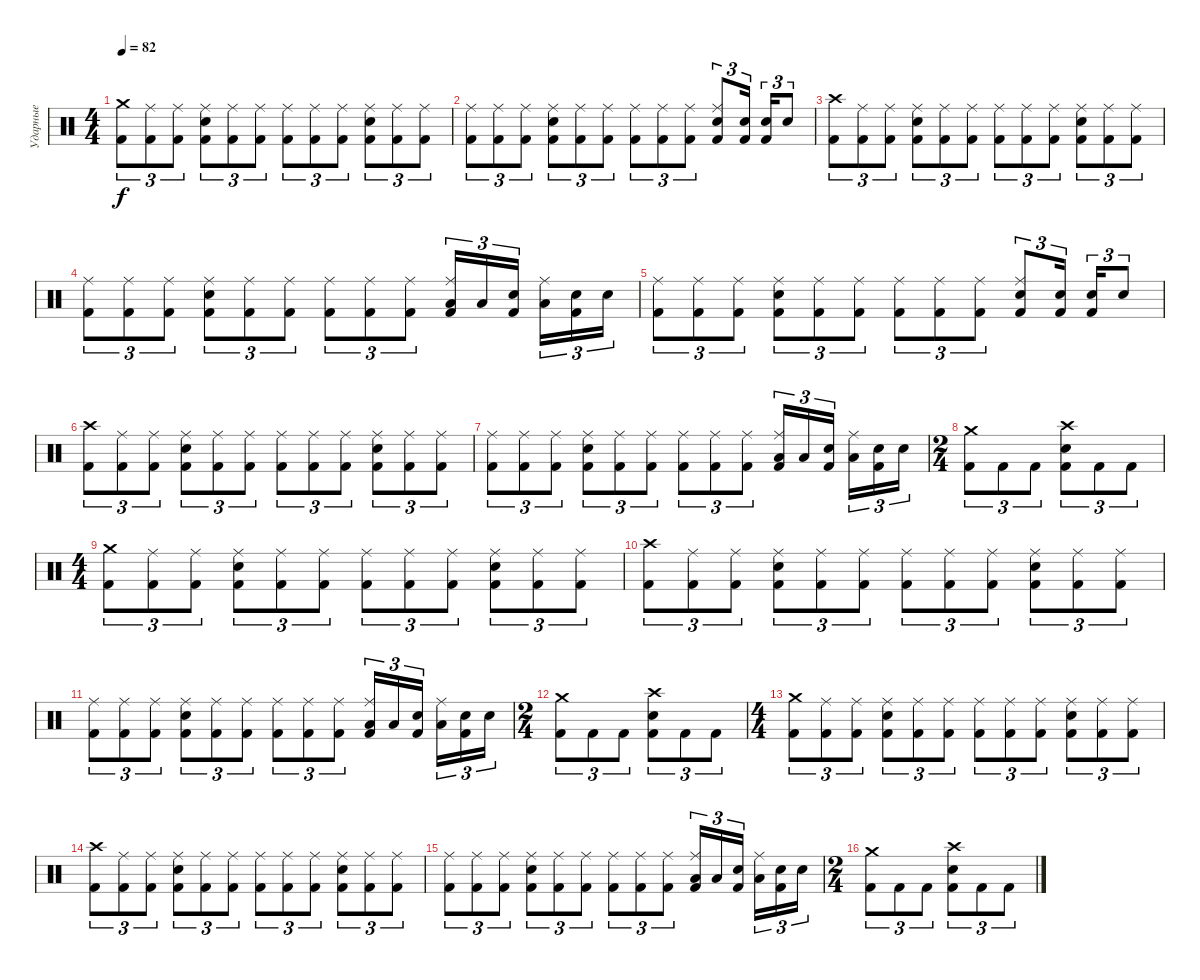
\track ("Ударные" "Ударные") {instrument percussion}
\staff {score}
\articulation defaults
\ts (4 4)
\tempo 82
\clef neutral
\ks c
("Crash medium (hit)" "Kick (hit) 2").8{tu (3 2) dy f} ("Ride (middle)" "Kick (hit) 2").8{tu (3 2)} ("Ride (middle)" "Kick (hit) 2").8{tu (3 2)} ("Ride (middle)" "Electric Snare (hit)" "Kick (hit) 2").8{tu (3 2)} ("Ride (middle)" "Kick (hit) 2").8{tu (3 2)} ("Ride (middle)" "Kick (hit) 2").8{tu (3 2)} ("Ride (middle)" "Kick (hit) 2").8{tu (3 2)} ("Ride (middle)" "Kick (hit) 2").8{tu (3 2)} ("Ride (middle)" "Kick (hit) 2").8{tu (3 2)} ("Ride (middle)" "Electric Snare (hit)" "Kick (hit) 2").8{tu (3 2)} ("Ride (middle)" "Kick (hit) 2").8{tu (3 2)} ("Ride (middle)" "Kick (hit) 2").8{tu (3 2)} |
("Ride (middle)" "Kick (hit) 2").8{tu (3 2)} ("Ride (middle)" "Kick (hit) 2").8{tu (3 2)} ("Ride (middle)" "Kick (hit) 2").8{tu (3 2)} ("Ride (middle)" "Electric Snare (hit)" "Kick (hit) 2").8{tu (3 2)} ("Ride (middle)" "Kick (hit) 2").8{tu (3 2)} ("Ride (middle)" "Kick (hit) 2").8{tu (3 2)} ("Ride (middle)" "Kick (hit) 2").8{tu (3 2)} ("Ride (middle)" "Kick (hit) 2").8{tu (3 2)} ("Ride (middle)" "Kick (hit) 2").8{tu (3 2)} ("Ride (middle)" "Electric Snare (hit)" "Kick (hit) 2").8{tu (3 2)} ("Electric Snare (hit)" "Kick (hit) 2").16{tu (3 2)} ("Electric Snare (hit)" "Kick (hit) 2").16{tu (3 2)} "Electric Snare (hit)".8{tu (3 2)} |
("Crash high (hit)" "Kick (hit) 2").8{tu (3 2)} ("Ride (middle)" "Kick (hit) 2").8{tu (3 2)} ("Ride (middle)" "Kick (hit) 2").8{tu (3 2)} ("Ride (middle)" "Electric Snare (hit)" "Kick (hit) 2").8{tu (3 2)} ("Ride (middle)" "Kick (hit) 2").8{tu (3 2)} ("Ride (middle)" "Kick (hit) 2").8{tu (3 2)} ("Ride (middle)" "Kick (hit) 2").8{tu (3 2)} ("Ride (middle)" "Kick (hit) 2").8{tu (3 2)} ("Ride (middle)" "Kick (hit) 2").8{tu (3 2)} ("Ride (middle)" "Electric Snare (hit)" "Kick (hit) 2").8{tu (3 2)} ("Ride (middle)" "Kick (hit) 2").8{tu (3 2)} ("Ride (middle)" "Kick (hit) 2").8{tu (3 2)} |
("Ride (middle)" "Kick (hit) 2").8{tu (3 2)} ("Ride (middle)" "Kick (hit) 2").8{tu (3 2)} ("Ride (middle)" "Kick (hit) 2").8{tu (3 2)} ("Ride (middle)" "Electric Snare (hit)" "Kick (hit) 2").8{tu (3 2)} ("Ride (middle)" "Kick (hit) 2").8{tu (3 2)} ("Ride (middle)" "Kick (hit) 2").8{tu (3 2)} ("Ride (middle)" "Kick (hit) 2").8{tu (3 2)} ("Ride (middle)" "Kick (hit) 2").8{tu (3 2)} ("Ride (middle)" "Kick (hit) 2").8{tu (3 2)} ("Ride (middle)" "Low Tom (hit)" "Kick (hit) 2").16{tu (3 2)} "Low Tom (hit)".16{tu (3 2)} ("Electric Snare (hit)" "Kick (hit) 2").16{tu (3 2)} ("Ride (middle)" "Low Tom (hit)").16{tu (3 2)} ("Electric Snare (hit)" "Kick (hit) 2").16{tu (3 2)} "Electric Snare (hit)".16{tu (3 2)} |
("Ride (middle)" "Kick (hit) 2").8{tu (3 2)} ("Ride (middle)" "Kick (hit) 2").8{tu (3 2)} ("Ride (middle)" "Kick (hit) 2").8{tu (3 2)} ("Ride (middle)" "Electric Snare (hit)" "Kick (hit) 2").8{tu (3 2)} ("Ride (middle)" "Kick (hit) 2").8{tu (3 2)} ("Ride (middle)" "Kick (hit) 2").8{tu (3 2)} ("Ride (middle)" "Kick (hit) 2").8{tu (3 2)} ("Ride (middle)" "Kick (hit) 2").8{tu (3 2)} ("Ride (middle)" "Kick (hit) 2").8{tu (3 2)} ("Ride (middle)" "Electric Snare (hit)" "Kick (hit) 2").8{tu (3 2)} ("Electric Snare (hit)" "Kick (hit) 2").16{tu (3 2)} ("Electric Snare (hit)" "Kick (hit) 2").16{tu (3 2)} "Electric Snare (hit)".8{tu (3 2)} |
("Crash high (hit)" "Kick (hit) 2").8{tu (3 2)} ("Ride (middle)" "Kick (hit) 2").8{tu (3 2)} ("Ride (middle)" "Kick (hit) 2").8{tu (3 2)} ("Ride (middle)" "Electric Snare (hit)" "Kick (hit) 2").8{tu (3 2)} ("Ride (middle)" "Kick (hit) 2").8{tu (3 2)} ("Ride (middle)" "Kick (hit) 2").8{tu (3 2)} ("Ride (middle)" "Kick (hit) 2").8{tu (3 2)} ("Ride (middle)" "Kick (hit) 2").8{tu (3 2)} ("Ride (middle)" "Kick (hit) 2").8{tu (3 2)} ("Ride (middle)" "Electric Snare (hit)" "Kick (hit) 2").8{tu (3 2)} ("Ride (middle)" "Kick (hit) 2").8{tu (3 2)} ("Ride (middle)" "Kick (hit) 2").8{tu (3 2)} |
("Ride (middle)" "Kick (hit) 2").8{tu (3 2)} ("Ride (middle)" "Kick (hit) 2").8{tu (3 2)} ("Ride (middle)" "Kick (hit) 2").8{tu (3 2)} ("Ride (middle)" "Electric Snare (hit)" "Kick (hit) 2").8{tu (3 2)} ("Ride (middle)" "Kick (hit) 2").8{tu (3 2)} ("Ride (middle)" "Kick (hit) 2").8{tu (3 2)} ("Ride (middle)" "Kick (hit) 2").8{tu (3 2)} ("Ride (middle)" "Kick (hit) 2").8{tu (3 2)} ("Ride (middle)" "Kick (hit) 2").8{tu (3 2)} ("Ride (middle)" "Low Tom (hit)" "Kick (hit) 2").16{tu (3 2)} "Low Tom (hit)".16{tu (3 2)} ("Electric Snare (hit)" "Kick (hit) 2").16{tu (3 2)} ("Ride (middle)" "Low Tom (hit)").16{tu (3 2)} ("Electric Snare (hit)" "Kick (hit) 2").16{tu (3 2)} "Electric Snare (hit)".16{tu (3 2)} |
\ts (2 4)
("Crash medium (hit)" "Kick (hit) 2").8{tu (3 2)} "Kick (hit) 2".8{tu (3 2)} "Kick (hit) 2".8{tu (3 2)} ("Crash high (hit)" "Electric Snare (hit)" "Kick (hit) 2").8{tu (3 2)} "Kick (hit) 2".8{tu (3 2)} "Kick (hit) 2".8{tu (3 2)} |
\ts (4 4)
("Crash medium (hit)" "Kick (hit) 2").8{tu (3 2)} ("Ride (middle)" "Kick (hit) 2").8{tu (3 2)} ("Ride (middle)" "Kick (hit) 2").8{tu (3 2)} ("Ride (middle)" "Electric Snare (hit)" "Kick (hit) 2").8{tu (3 2)} ("Ride (middle)" "Kick (hit) 2").8{tu (3 2)} ("Ride (middle)" "Kick (hit) 2").8{tu (3 2)} ("Ride (middle)" "Kick (hit) 2").8{tu (3 2)} ("Ride (middle)" "Kick (hit) 2").8{tu (3 2)} ("Ride (middle)" "Kick (hit) 2").8{tu (3 2)} ("Ride (middle)" "Electric Snare (hit)" "Kick (hit) 2").8{tu (3 2)} ("Ride (middle)" "Kick (hit) 2").8{tu (3 2)} ("Ride (middle)" "Kick (hit) 2").8{tu (3 2)} |
("Crash high (hit)" "Kick (hit) 2").8{tu (3 2)} ("Ride (middle)" "Kick (hit) 2").8{tu (3 2)} ("Ride (middle)" "Kick (hit) 2").8{tu (3 2)} ("Ride (middle)" "Electric Snare (hit)" "Kick (hit) 2").8{tu (3 2)} ("Ride (middle)" "Kick (hit) 2").8{tu (3 2)} ("Ride (middle)" "Kick (hit) 2").8{tu (3 2)} ("Ride (middle)" "Kick (hit) 2").8{tu (3 2)} ("Ride (middle)" "Kick (hit) 2").8{tu (3 2)} ("Ride (middle)" "Kick (hit) 2").8{tu (3 2)} ("Ride (middle)" "Electric Snare (hit)" "Kick (hit) 2").8{tu (3 2)} ("Ride (middle)" "Kick (hit) 2").8{tu (3 2)} ("Ride (middle)" "Kick (hit) 2").8{tu (3 2)} |
("Ride (middle)" "Kick (hit) 2").8{tu (3 2)} ("Ride (middle)" "Kick (hit) 2").8{tu (3 2)} ("Ride (middle)" "Kick (hit) 2").8{tu (3 2)} ("Ride (middle)" "Electric Snare (hit)" "Kick (hit) 2").8{tu (3 2)} ("Ride (middle)" "Kick (hit) 2").8{tu (3 2)} ("Ride (middle)" "Kick (hit) 2").8{tu (3 2)} ("Ride (middle)" "Kick (hit) 2").8{tu (3 2)} ("Ride (middle)" "Kick (hit) 2").8{tu (3 2)} ("Ride (middle)" "Kick (hit) 2").8{tu (3 2)} ("Ride (middle)" "Low Tom (hit)" "Kick (hit) 2").16{tu (3 2)} "Low Tom (hit)".16{tu (3 2)} ("Electric Snare (hit)" "Kick (hit) 2").16{tu (3 2)} ("Ride (middle)" "Low Tom (hit)").16{tu (3 2)} ("Electric Snare (hit)" "Kick (hit) 2").16{tu (3 2)} "Electric Snare (hit)".16{tu (3 2)} |
\ts (2 4)
("Crash medium (hit)" "Kick (hit) 2").8{tu (3 2)} "Kick (hit) 2".8{tu (3 2)} "Kick (hit) 2".8{tu (3 2)} ("Crash high (hit)" "Electric Snare (hit)" "Kick (hit) 2").8{tu (3 2)} "Kick (hit) 2".8{tu (3 2)} "Kick (hit) 2".8{tu (3 2)} |
\ts (4 4)
("Crash medium (hit)" "Kick (hit) 2").8{tu (3 2)} ("Ride (middle)" "Kick (hit) 2").8{tu (3 2)} ("Ride (middle)" "Kick (hit) 2").8{tu (3 2)} ("Ride (middle)" "Electric Snare (hit)" "Kick (hit) 2").8{tu (3 2)} ("Ride (middle)" "Kick (hit) 2").8{tu (3 2)} ("Ride (middle)" "Kick (hit) 2").8{tu (3 2)} ("Ride (middle)" "Kick (hit) 2").8{tu (3 2)} ("Ride (middle)" "Kick (hit) 2").8{tu (3 2)} ("Ride (middle)" "Kick (hit) 2").8{tu (3 2)} ("Ride (middle)" "Electric Snare (hit)" "Kick (hit) 2").8{tu (3 2)} ("Ride (middle)" "Kick (hit) 2").8{tu (3 2)} ("Ride (middle)" "Kick (hit) 2").8{tu (3 2)} |
("Crash high (hit)" "Kick (hit) 2").8{tu (3 2)} ("Ride (middle)" "Kick (hit) 2").8{tu (3 2)} ("Ride (middle)" "Kick (hit) 2").8{tu (3 2)} ("Ride (middle)" "Electric Snare (hit)" "Kick (hit) 2").8{tu (3 2)} ("Ride (middle)" "Kick (hit) 2").8{tu (3 2)} ("Ride (middle)" "Kick (hit) 2").8{tu (3 2)} ("Ride (middle)" "Kick (hit) 2").8{tu (3 2)} ("Ride (middle)" "Kick (hit) 2").8{tu (3 2)} ("Ride (middle)" "Kick (hit) 2").8{tu (3 2)} ("Ride (middle)" "Electric Snare (hit)" "Kick (hit) 2").8{tu (3 2)} ("Ride (middle)" "Kick (hit) 2").8{tu (3 2)} ("Ride (middle)" "Kick (hit) 2").8{tu (3 2)} |
("Ride (middle)" "Kick (hit) 2").8{tu (3 2)} ("Ride (middle)" "Kick (hit) 2").8{tu (3 2)} ("Ride (middle)" "Kick (hit) 2").8{tu (3 2)} ("Ride (middle)" "Electric Snare (hit)" "Kick (hit) 2").8{tu (3 2)} ("Ride (middle)" "Kick (hit) 2").8{tu (3 2)} ("Ride (middle)" "Kick (hit) 2").8{tu (3 2)} ("Ride (middle)" "Kick (hit) 2").8{tu (3 2)} ("Ride (middle)" "Kick (hit) 2").8{tu (3 2)} ("Ride (middle)" "Kick (hit) 2").8{tu (3 2)} ("Ride (middle)" "Low Tom (hit)" "Kick (hit) 2").16{tu (3 2)} "Low Tom (hit)".16{tu (3 2)} ("Electric Snare (hit)" "Kick (hit) 2").16{tu (3 2)} ("Ride (middle)" "Low Tom (hit)").16{tu (3 2)} ("Electric Snare (hit)" "Kick (hit) 2").16{tu (3 2)} "Electric Snare (hit)".16{tu (3 2)} |
\ts (2 4)
("Crash medium (hit)" "Kick (hit) 2").8{tu (3 2)} "Kick (hit) 2".8{tu (3 2)} "Kick (hit) 2".8{tu (3 2)} ("Crash high (hit)" "Electric Snare (hit)" "Kick (hit) 2").8{tu (3 2)} "Kick (hit) 2".8{tu (3 2)} "Kick (hit) 2".8{tu (3 2)}
